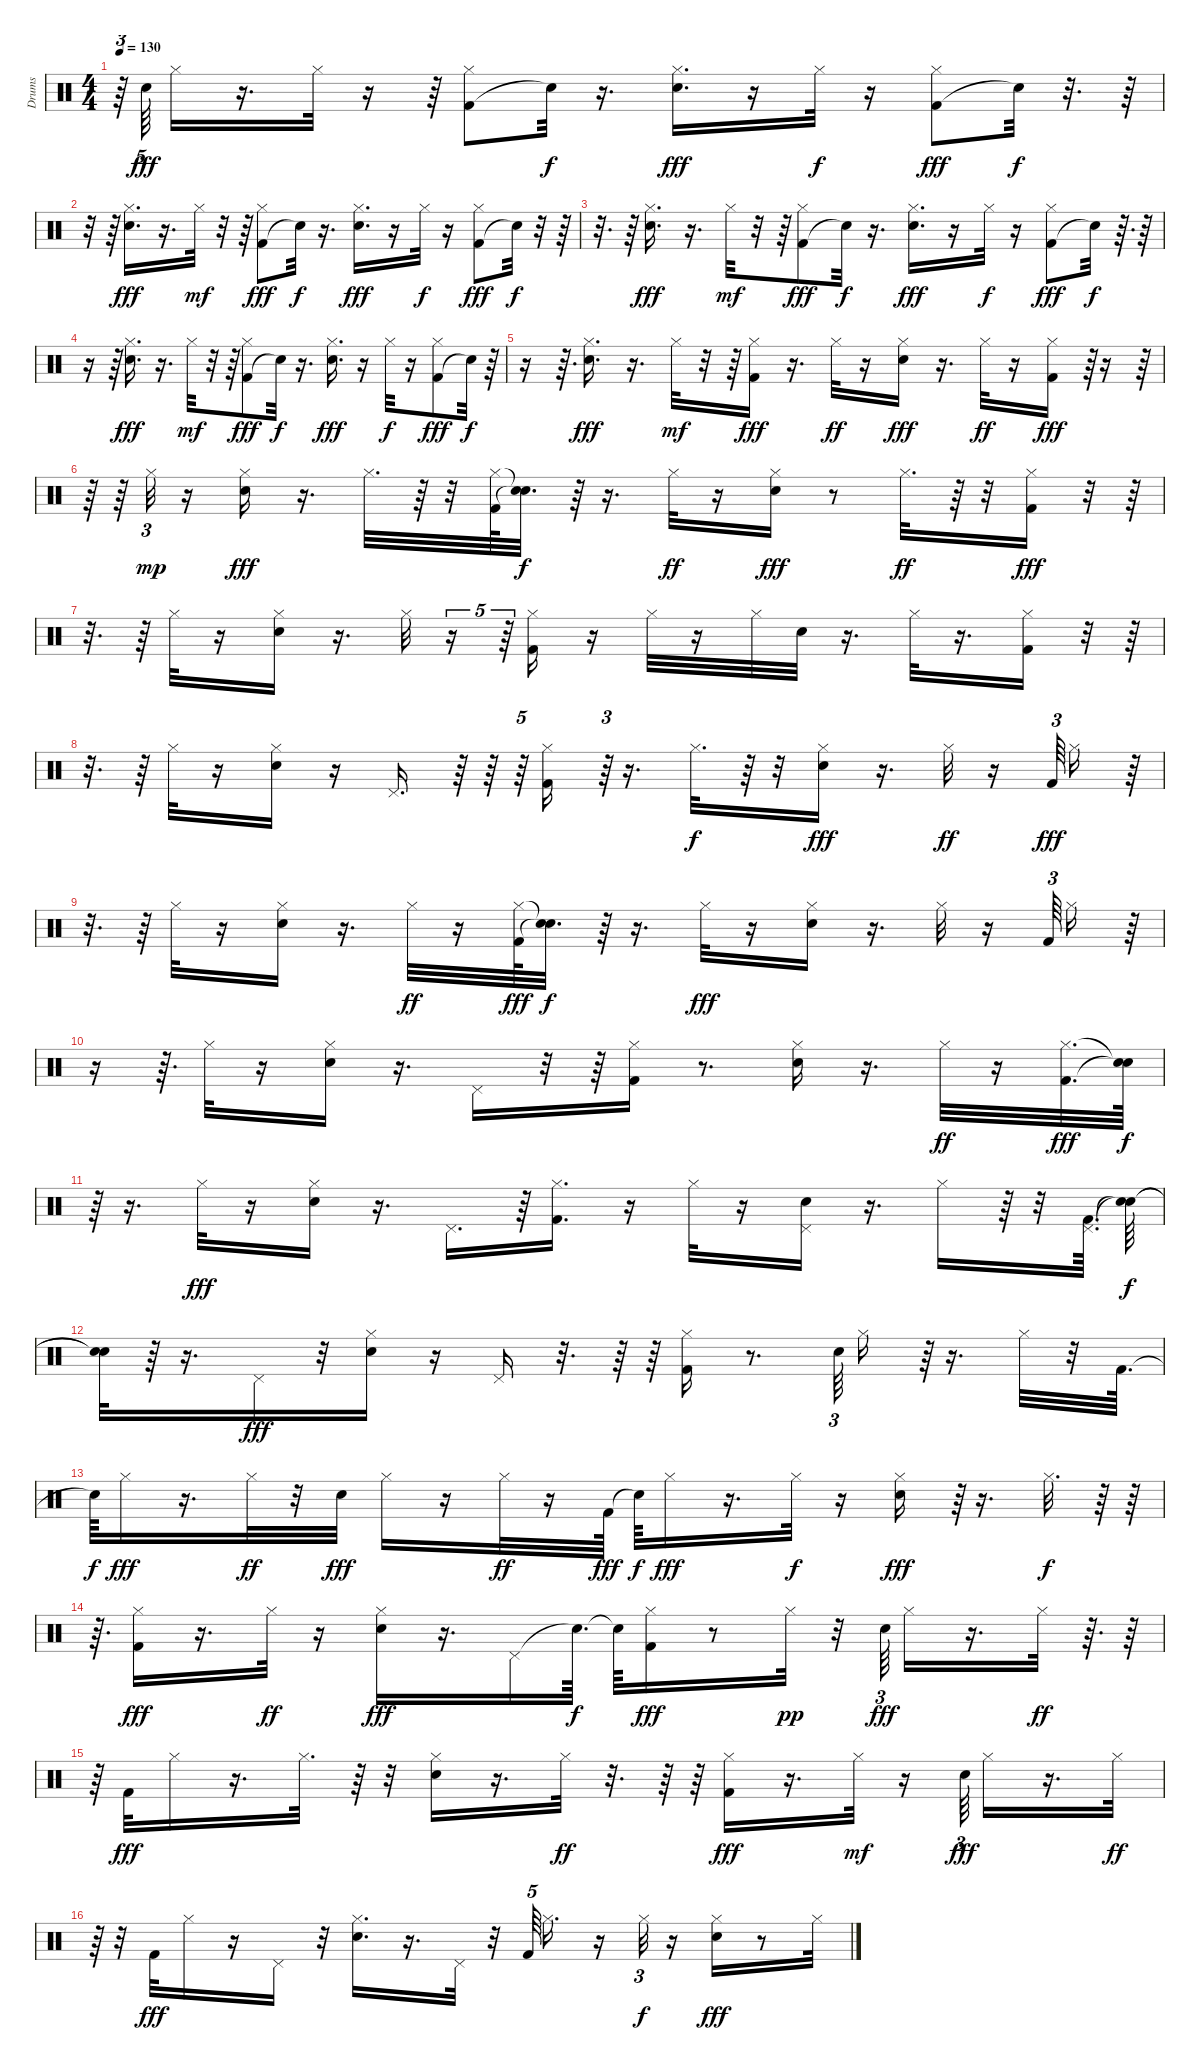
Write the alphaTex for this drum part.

\track ("Drums" "Drums") {instrument percussion}
\staff {score}
\articulation defaults
\ts (4 4)
\tempo 130
\clef neutral
\ks c
r.64{tu (3 2) dy ff} "Electric Snare (hit)".64{tu (5 4) dy fff} "Hi-Hat (closed)".16 r.16{d} "Hi-Hat (closed)".32 r.16 r.64 ("Kick (hit) 2" "Hi-Hat (closed)").8 "Snare (hit)"{t}.32{dy f} r.16{d} ("Hi-Hat (closed)" "Electric Snare (hit)").16{d dy fff} r.16 "Hi-Hat (closed)".32{dy f} r.16 ("Kick (hit) 2" "Hi-Hat (closed)").8{dy fff} "Snare (hit)"{t}.32{dy f} r.32{d} r.64 |
r.32 r.64 ("Electric Snare (hit)" "Hi-Hat (closed)").16{d dy fff} r.16{d} "Hi-Hat (closed)".32{dy mf} r.32 r.64 ("Kick (hit) 2" "Hi-Hat (closed)").8{dy fff} "Snare (hit)"{t}.32{dy f} r.16{d} ("Hi-Hat (closed)" "Electric Snare (hit)").16{d dy fff} r.16 "Hi-Hat (closed)".32{dy f} r.16 ("Kick (hit) 2" "Hi-Hat (closed)").8{dy fff} "Snare (hit)"{t}.32{dy f} r.32 r.64 |
r.32{d} r.64 ("Electric Snare (hit)" "Hi-Hat (closed)").16{d dy fff} r.16{d} "Hi-Hat (closed)".32{dy mf} r.32 r.64 ("Kick (hit) 2" "Hi-Hat (closed)").8{dy fff} "Snare (hit)"{t}.32{dy f} r.16{d} ("Hi-Hat (closed)" "Electric Snare (hit)").16{d dy fff} r.16 "Hi-Hat (closed)".32{dy f} r.16 ("Kick (hit) 2" "Hi-Hat (closed)").8{dy fff} "Snare (hit)"{t}.32{dy f} r.64{d} r.64 |
r.16 r.64 ("Electric Snare (hit)" "Hi-Hat (closed)").16{d dy fff} r.16{d} "Hi-Hat (closed)".32{dy mf} r.32 r.64 ("Kick (hit) 2" "Hi-Hat (closed)").8{dy fff} "Snare (hit)"{t}.32{dy f} r.16{d} ("Hi-Hat (closed)" "Electric Snare (hit)").16{d dy fff} r.16 "Hi-Hat (closed)".32{dy f} r.16 ("Kick (hit) 2" "Hi-Hat (closed)").8{dy fff} "Snare (hit)"{t}.32{dy f} r.64 |
r.16 r.64{d} ("Electric Snare (hit)" "Hi-Hat (closed)").16{d dy fff} r.16{d} "Hi-Hat (closed)".32{dy mf} r.32 r.64 ("Kick (hit) 2" "Hi-Hat (closed)").16{dy fff} r.16{d} "Hi-Hat (closed)".32{dy ff} r.16 ("Electric Snare (hit)" "Hi-Hat (closed)").16{dy fff} r.16{d} "Hi-Hat (closed)".32{dy ff} r.16 ("Kick (hit) 2" "Hi-Hat (closed)").16{dy fff} r.64{tu (3 2)} r.16 r.64 |
r.64 r.64 "Hi-Hat (closed)".32{tu (3 2) dy mp} r.16 ("Electric Snare (hit)" "Hi-Hat (closed)").16{dy fff} r.16{d} "Hi-Hat (closed)".32{d} r.64 r.32 ("Kick (hit) 2" "Hi-Hat (closed)").64 ("Snare (hit)"{t} "Snare (hit)"{t}).32{d dy f} r.64 r.16{d} "Hi-Hat (closed)".32{dy ff} r.16 ("Electric Snare (hit)" "Hi-Hat (closed)").16{dy fff} r.8 "Hi-Hat (closed)".32{d dy ff} r.64 r.32 ("Kick (hit) 2" "Hi-Hat (closed)").16{dy fff} r.32 r.64 |
r.32{d} r.64 "Hi-Hat (closed)".32 r.16 ("Electric Snare (hit)" "Hi-Hat (closed)").16 r.16{d} "Hi-Hat (closed)".32 r.16{tu (5 4)} r.64{tu (5 4)} ("Kick (hit) 2" "Hi-Hat (closed)").16 r.16 "Hi-Hat (closed)".32 r.16 "Hi-Hat (closed)".32 "Electric Snare (hit)".32 r.16{d} "Hi-Hat (closed)".32 r.16{d} ("Kick (hit) 2" "Hi-Hat (closed)").16 r.32 r.64 |
r.32{d} r.64 "Hi-Hat (closed)".32 r.16 ("Electric Snare (hit)" "Hi-Hat (closed)").16 r.16 "Pedal Hi-Hat (hit)".16{d} r.64 r.64 r.64{tu (5 4)} ("Kick (hit) 2" "Hi-Hat (closed)").16 r.64{tu (3 2)} r.16{d} "Hi-Hat (closed)".32{d dy f} r.64 r.32 ("Electric Snare (hit)" "Hi-Hat (closed)").16{dy fff} r.16{d} "Hi-Hat (closed)".32{dy ff} r.16 "Kick (hit) 2".64{tu (3 2) dy fff} "Hi-Hat (closed)".16 r.64 |
r.32{d} r.64 "Hi-Hat (closed)".32 r.16 ("Electric Snare (hit)" "Hi-Hat (closed)").16 r.16{d} "Hi-Hat (closed)".32{dy ff} r.16 ("Kick (hit) 2" "Hi-Hat (closed)").64{dy fff} ("Snare (hit)"{t} "Snare (hit)"{t}).32{d dy f} r.64 r.16{d} "Hi-Hat (closed)".32{dy fff} r.16 ("Hi-Hat (closed)" "Electric Snare (hit)").16 r.16{d} "Hi-Hat (closed)".32 r.16 "Kick (hit) 2".64{tu (3 2)} "Hi-Hat (closed)".16 r.64 |
r.16 r.64{d} "Hi-Hat (closed)".32 r.16 ("Hi-Hat (closed)" "Electric Snare (hit)").16 r.16{d} "Pedal Hi-Hat (hit)".16 r.32 r.64 ("Hi-Hat (closed)" "Kick (hit) 2").16 r.8{d} ("Electric Snare (hit)" "Hi-Hat (closed)").16 r.16{d} "Hi-Hat (closed)".32{dy ff} r.16 ("Kick (hit) 2" "Hi-Hat (closed)").32{d dy fff} ("Snare (hit)"{t} "Snare (hit)"{t}).64{dy f} |
r.64 r.16{d} "Hi-Hat (closed)".32{dy fff} r.16 ("Electric Snare (hit)" "Hi-Hat (closed)").16 r.16{d} "Pedal Hi-Hat (hit)".16{d} r.64 ("Kick (hit) 2" "Hi-Hat (closed)").16{d} r.16 "Hi-Hat (closed)".32 r.16 ("Pedal Hi-Hat (hit)" "Electric Snare (hit)").16 r.16{d} "Hi-Hat (closed)".16 r.64 r.32 ("Pedal Hi-Hat (hit)" "Kick (hit) 2").64{d} ("Snare (hit)"{t} "Snare (hit)"{t}).64{dy f} |
("Snare (hit)"{t} "Snare (hit)"{t}).32 r.64 r.16{d} "Pedal Hi-Hat (hit)".16{dy fff} r.32 ("Hi-Hat (closed)" "Electric Snare (hit)").16 r.16 "Pedal Hi-Hat (hit)".16 r.32{d} r.64 r.64 ("Kick (hit) 2" "Hi-Hat (closed)").16 r.8{d} "Electric Snare (hit)".64{tu (3 2)} "Hi-Hat (closed)".16 r.64{tu (3 2)} r.16{d} "Hi-Hat (closed)".32 r.32 "Kick (hit) 2".64{d} |
"Snare (hit)"{t}.64{dy f} "Hi-Hat (closed)".16{dy fff} r.16{d} "Hi-Hat (closed)".32{dy ff} r.32 "Electric Snare (hit)".32{dy fff} "Hi-Hat (closed)".16 r.16 "Hi-Hat (closed)".32{dy ff} r.16 "Kick (hit) 2".64{dy fff} "Snare (hit)"{t}.64{dy f} "Hi-Hat (closed)".16{dy fff} r.16{d} "Hi-Hat (closed)".32{dy f} r.16 ("Hi-Hat (closed)" "Electric Snare (hit)").16{dy fff} r.64{tu (3 2)} r.16{d} "Hi-Hat (closed)".32{d dy f} r.64 r.64 |
r.64{d} ("Kick (hit) 2" "Hi-Hat (closed)").16{dy fff} r.16{d} "Hi-Hat (closed)".32{dy ff} r.16 ("Electric Snare (hit)" "Hi-Hat (closed)").16{dy fff} r.16{d} "Pedal Hi-Hat (hit)".16 "Snare (hit)"{t}.64{d dy f} "Snare (hit)"{t}.64 ("Kick (hit) 2" "Hi-Hat (closed)").16{dy fff} r.8 "Hi-Hat (closed)".32{dy pp} r.32 "Electric Snare (hit)".64{tu (3 2) dy fff} "Hi-Hat (closed)".16 r.16{d} "Hi-Hat (closed)".32{dy ff} r.64{d} r.64 |
r.64 "Kick (hit) 2".32{dy fff} "Hi-Hat (closed)".16 r.16{d} "Hi-Hat (closed)".32{d} r.64 r.32 ("Electric Snare (hit)" "Hi-Hat (closed)").16 r.16{d} "Hi-Hat (closed)".32{dy ff} r.32{d} r.64 r.64 ("Kick (hit) 2" "Hi-Hat (closed)").16{dy fff} r.16{d} "Hi-Hat (closed)".32{dy mf} r.16 "Electric Snare (hit)".64{tu (3 2) dy fff} "Hi-Hat (closed)".16 r.16{d} "Hi-Hat (closed)".32{dy ff} |
r.64 r.32 "Kick (hit) 2".32{dy fff} "Hi-Hat (closed)".16 r.16 "Pedal Hi-Hat (hit)".16 r.32 ("Electric Snare (hit)" "Hi-Hat (closed)").16{d} r.16{d} "Pedal Hi-Hat (hit)".32 r.32 "Kick (hit) 2".64{tu (5 4)} "Hi-Hat (closed)".16{d} r.16 "Hi-Hat (closed)".32{tu (3 2) dy f} r.16 ("Electric Snare (hit)" "Hi-Hat (closed)").16{dy fff} r.8 "Hi-Hat (closed)".32
